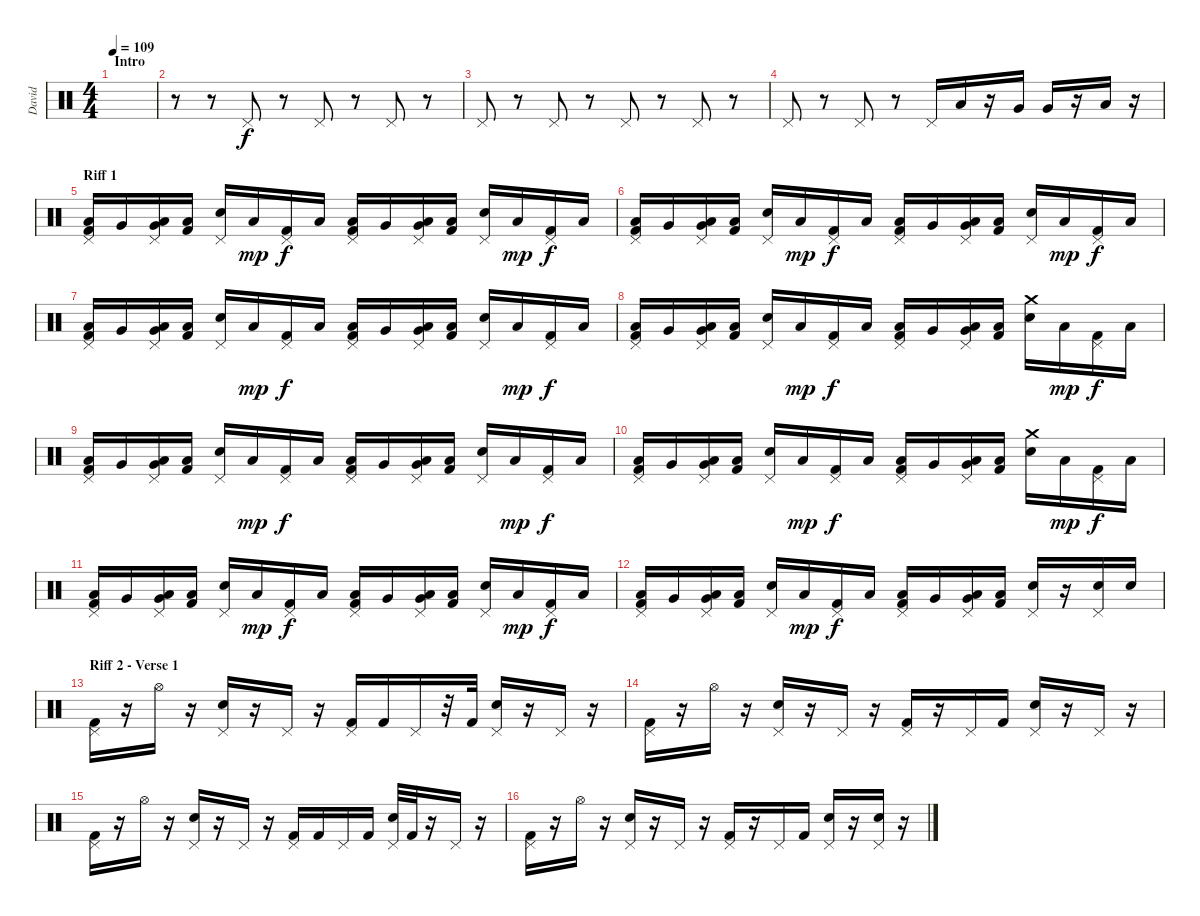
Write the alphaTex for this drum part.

\track ("David" "David") {instrument percussion}
\staff {score}
\articulation defaults
\ts (4 4)
\section ("" "Intro")
\tempo 109
\clef neutral
\ks c
|
r.8 r.8 "Pedal Hi-Hat (hit)".8 r.8 "Pedal Hi-Hat (hit)".8 r.8 "Pedal Hi-Hat (hit)".8 r.8 |
"Pedal Hi-Hat (hit)".8 r.8 "Pedal Hi-Hat (hit)".8 r.8 "Pedal Hi-Hat (hit)".8 r.8 "Pedal Hi-Hat (hit)".8 r.8 |
"Pedal Hi-Hat (hit)".8 r.8 "Pedal Hi-Hat (hit)".8 r.8 "Pedal Hi-Hat (hit)".16 "Low Tom (hit)".16 r.16 "Very Low Tom (hit)".16 "Very Low Tom (hit)".16 r.16 "Low Floor Tom (hit)".16 r.16 |
\section ("" "Riff 1")
("Pedal Hi-Hat (hit)" "Low Tom (hit)" "Kick (hit) 2").16 "Very Low Tom (hit)".16 ("Pedal Hi-Hat (hit)" "Very Low Tom (hit)" "Low Floor Tom (hit)").16 ("Low Floor Tom (hit)" "Kick (hit) 2").16 ("Pedal Hi-Hat (hit)" "Snare (hit) 2").16 "Low Floor Tom (hit)".16{dy mp} ("Pedal Hi-Hat (hit)" "Kick (hit) 2").16{dy f} "Low Tom (hit)".16 ("Pedal Hi-Hat (hit)" "Low Tom (hit)" "Kick (hit) 2").16 "Very Low Tom (hit)".16 ("Pedal Hi-Hat (hit)" "Very Low Tom (hit)" "Low Floor Tom (hit)").16 ("Low Floor Tom (hit)" "Kick (hit) 2").16 ("Pedal Hi-Hat (hit)" "Snare (hit) 2").16 "Low Floor Tom (hit)".16{dy mp} ("Pedal Hi-Hat (hit)" "Kick (hit) 2").16{dy f} "Low Tom (hit)".16 |
("Pedal Hi-Hat (hit)" "Low Tom (hit)" "Kick (hit) 2").16 "Very Low Tom (hit)".16 ("Pedal Hi-Hat (hit)" "Very Low Tom (hit)" "Low Floor Tom (hit)").16 ("Low Floor Tom (hit)" "Kick (hit) 2").16 ("Pedal Hi-Hat (hit)" "Snare (hit) 2").16 "Low Floor Tom (hit)".16{dy mp} ("Pedal Hi-Hat (hit)" "Kick (hit) 2").16{dy f} "Low Tom (hit)".16 ("Pedal Hi-Hat (hit)" "Low Tom (hit)" "Kick (hit) 2").16 "Very Low Tom (hit)".16 ("Pedal Hi-Hat (hit)" "Very Low Tom (hit)" "Low Floor Tom (hit)").16 ("Low Floor Tom (hit)" "Kick (hit) 2").16 ("Pedal Hi-Hat (hit)" "Snare (hit) 2").16 "Low Floor Tom (hit)".16{dy mp} ("Pedal Hi-Hat (hit)" "Kick (hit) 2").16{dy f} "Low Tom (hit)".16 |
("Pedal Hi-Hat (hit)" "Low Tom (hit)" "Kick (hit) 2").16 "Very Low Tom (hit)".16 ("Pedal Hi-Hat (hit)" "Very Low Tom (hit)" "Low Floor Tom (hit)").16 ("Low Floor Tom (hit)" "Kick (hit) 2").16 ("Pedal Hi-Hat (hit)" "Snare (hit) 2").16 "Low Floor Tom (hit)".16{dy mp} ("Pedal Hi-Hat (hit)" "Kick (hit) 2").16{dy f} "Low Tom (hit)".16 ("Pedal Hi-Hat (hit)" "Low Tom (hit)" "Kick (hit) 2").16 "Very Low Tom (hit)".16 ("Pedal Hi-Hat (hit)" "Very Low Tom (hit)" "Low Floor Tom (hit)").16 ("Low Floor Tom (hit)" "Kick (hit) 2").16 ("Pedal Hi-Hat (hit)" "Snare (hit) 2").16 "Low Floor Tom (hit)".16{dy mp} ("Pedal Hi-Hat (hit)" "Kick (hit) 2").16{dy f} "Low Tom (hit)".16 |
("Pedal Hi-Hat (hit)" "Low Tom (hit)" "Kick (hit) 2").16 "Very Low Tom (hit)".16 ("Pedal Hi-Hat (hit)" "Very Low Tom (hit)" "Low Floor Tom (hit)").16 ("Low Floor Tom (hit)" "Kick (hit) 2").16 ("Pedal Hi-Hat (hit)" "Snare (hit) 2").16 "Low Floor Tom (hit)".16{dy mp} ("Pedal Hi-Hat (hit)" "Kick (hit) 2").16{dy f} "Low Tom (hit)".16 ("Pedal Hi-Hat (hit)" "Low Tom (hit)" "Kick (hit) 2").16 "Very Low Tom (hit)".16 ("Pedal Hi-Hat (hit)" "Very Low Tom (hit)" "Low Floor Tom (hit)").16 ("Low Floor Tom (hit)" "Kick (hit) 2").16 ("Crash medium (hit)" "Snare (hit) 2").16 "Low Floor Tom (hit)".16{dy mp} ("Pedal Hi-Hat (hit)" "Kick (hit) 2").16{dy f} "Low Tom (hit)".16 |
("Pedal Hi-Hat (hit)" "Low Tom (hit)" "Kick (hit) 2").16 "Very Low Tom (hit)".16 ("Pedal Hi-Hat (hit)" "Very Low Tom (hit)" "Low Floor Tom (hit)").16 ("Low Floor Tom (hit)" "Kick (hit) 2").16 ("Pedal Hi-Hat (hit)" "Snare (hit) 2").16 "Low Floor Tom (hit)".16{dy mp} ("Pedal Hi-Hat (hit)" "Kick (hit) 2").16{dy f} "Low Tom (hit)".16 ("Pedal Hi-Hat (hit)" "Low Tom (hit)" "Kick (hit) 2").16 "Very Low Tom (hit)".16 ("Pedal Hi-Hat (hit)" "Very Low Tom (hit)" "Low Floor Tom (hit)").16 ("Low Floor Tom (hit)" "Kick (hit) 2").16 ("Pedal Hi-Hat (hit)" "Snare (hit) 2").16 "Low Floor Tom (hit)".16{dy mp} ("Pedal Hi-Hat (hit)" "Kick (hit) 2").16{dy f} "Low Tom (hit)".16 |
("Pedal Hi-Hat (hit)" "Low Tom (hit)" "Kick (hit) 2").16 "Very Low Tom (hit)".16 ("Pedal Hi-Hat (hit)" "Very Low Tom (hit)" "Low Floor Tom (hit)").16 ("Low Floor Tom (hit)" "Kick (hit) 2").16 ("Pedal Hi-Hat (hit)" "Snare (hit) 2").16 "Low Floor Tom (hit)".16{dy mp} ("Pedal Hi-Hat (hit)" "Kick (hit) 2").16{dy f} "Low Tom (hit)".16 ("Pedal Hi-Hat (hit)" "Low Tom (hit)" "Kick (hit) 2").16 "Very Low Tom (hit)".16 ("Pedal Hi-Hat (hit)" "Very Low Tom (hit)" "Low Floor Tom (hit)").16 ("Low Floor Tom (hit)" "Kick (hit) 2").16 ("Crash medium (hit)" "Snare (hit) 2").16 "Low Floor Tom (hit)".16{dy mp} ("Pedal Hi-Hat (hit)" "Kick (hit) 2").16{dy f} "Low Tom (hit)".16 |
("Pedal Hi-Hat (hit)" "Low Tom (hit)" "Kick (hit) 2").16 "Very Low Tom (hit)".16 ("Pedal Hi-Hat (hit)" "Very Low Tom (hit)" "Low Floor Tom (hit)").16 ("Low Floor Tom (hit)" "Kick (hit) 2").16 ("Pedal Hi-Hat (hit)" "Snare (hit) 2").16 "Low Floor Tom (hit)".16{dy mp} ("Pedal Hi-Hat (hit)" "Kick (hit) 2").16{dy f} "Low Tom (hit)".16 ("Pedal Hi-Hat (hit)" "Low Tom (hit)" "Kick (hit) 2").16 "Very Low Tom (hit)".16 ("Pedal Hi-Hat (hit)" "Very Low Tom (hit)" "Low Floor Tom (hit)").16 ("Low Floor Tom (hit)" "Kick (hit) 2").16 ("Pedal Hi-Hat (hit)" "Snare (hit) 2").16 "Low Floor Tom (hit)".16{dy mp} ("Pedal Hi-Hat (hit)" "Kick (hit) 2").16{dy f} "Low Tom (hit)".16 |
("Pedal Hi-Hat (hit)" "Low Tom (hit)" "Kick (hit) 2").16 "Very Low Tom (hit)".16 ("Pedal Hi-Hat (hit)" "Very Low Tom (hit)" "Low Floor Tom (hit)").16 ("Low Floor Tom (hit)" "Kick (hit) 2").16 ("Pedal Hi-Hat (hit)" "Snare (hit) 2").16 "Low Floor Tom (hit)".16{dy mp} ("Pedal Hi-Hat (hit)" "Kick (hit) 2").16{dy f} "Low Tom (hit)".16 ("Pedal Hi-Hat (hit)" "Low Tom (hit)" "Kick (hit) 2").16 "Very Low Tom (hit)".16 ("Pedal Hi-Hat (hit)" "Very Low Tom (hit)" "Low Floor Tom (hit)").16 ("Low Floor Tom (hit)" "Kick (hit) 2").16 ("Pedal Hi-Hat (hit)" "Snare (hit) 2").16 r.16 ("Pedal Hi-Hat (hit)" "Snare (hit) 2").16 "Snare (hit) 2".16 |
\section ("" "Riff 2 - Verse 1")
("Pedal Hi-Hat (hit)" "Kick (hit) 2").16 r.16 "Hi-Hat (open)".16 r.16 ("Pedal Hi-Hat (hit)" "Snare (hit) 2").16 r.16 "Pedal Hi-Hat (hit)".16 r.16 ("Pedal Hi-Hat (hit)" "Kick (hit) 2").16 "Kick (hit) 2".16 "Pedal Hi-Hat (hit)".16 r.32 "Kick (hit) 2".32 ("Pedal Hi-Hat (hit)" "Snare (hit) 2").16 r.16 "Pedal Hi-Hat (hit)".16 r.16 |
("Pedal Hi-Hat (hit)" "Kick (hit) 2").16 r.16 "Hi-Hat (open)".16 r.16 ("Pedal Hi-Hat (hit)" "Snare (hit) 2").16 r.16 "Pedal Hi-Hat (hit)".16 r.16 ("Pedal Hi-Hat (hit)" "Kick (hit) 2").16 r.16 "Pedal Hi-Hat (hit)".16 "Kick (hit) 2".16 ("Pedal Hi-Hat (hit)" "Snare (hit) 2").16 r.16 "Pedal Hi-Hat (hit)".16 r.16 |
("Pedal Hi-Hat (hit)" "Kick (hit) 2").16 r.16 "Hi-Hat (open)".16 r.16 ("Pedal Hi-Hat (hit)" "Snare (hit) 2").16 r.16 "Pedal Hi-Hat (hit)".16 r.16 ("Pedal Hi-Hat (hit)" "Kick (hit) 2").16 "Kick (hit) 2".16 "Pedal Hi-Hat (hit)".16 "Kick (hit) 2".16 ("Pedal Hi-Hat (hit)" "Snare (hit) 2").32 "Kick (hit) 2".32 r.16 "Pedal Hi-Hat (hit)".16 r.16 |
("Pedal Hi-Hat (hit)" "Kick (hit) 2").16 r.16 "Hi-Hat (open)".16 r.16 ("Pedal Hi-Hat (hit)" "Snare (hit) 2").16 r.16 "Pedal Hi-Hat (hit)".16 r.16 ("Pedal Hi-Hat (hit)" "Kick (hit) 2").16 r.16 "Pedal Hi-Hat (hit)".16 "Kick (hit) 2".16 ("Pedal Hi-Hat (hit)" "Snare (hit) 2").16 r.16 ("Pedal Hi-Hat (hit)" "Snare (hit) 2").16 r.16
